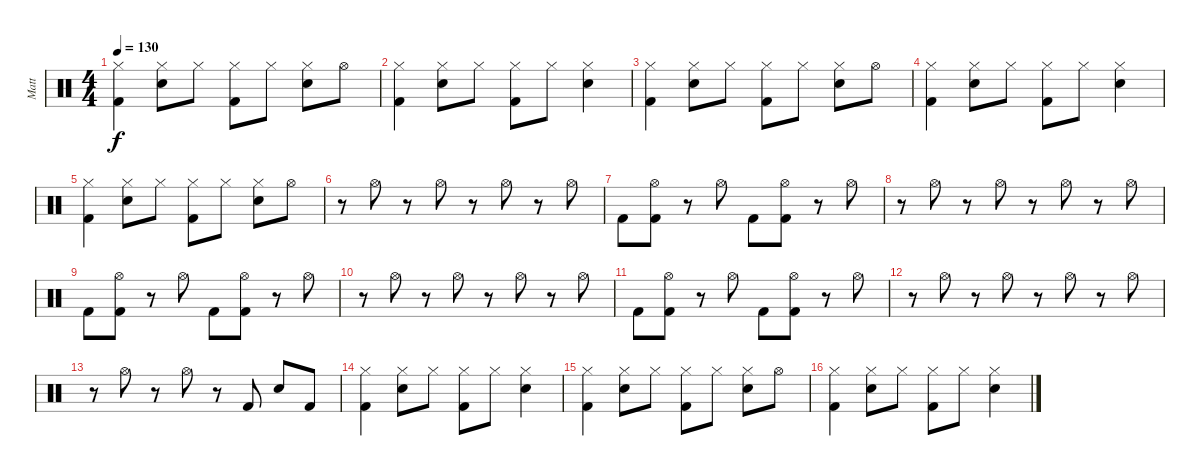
\track ("Matt" "Matt") {instrument percussion}
\staff {score}
\articulation defaults
\ts (4 4)
\tempo 130
\clef neutral
\ks c
("Hi-Hat (closed)" "Kick (hit) 2").4{dy f} ("Hi-Hat (closed)" "Snare (hit) 2").8 "Hi-Hat (closed)".8 ("Hi-Hat (closed)" "Kick (hit) 2").8 "Hi-Hat (closed)".8 ("Hi-Hat (closed)" "Snare (hit) 2").8 "Hi-Hat (open)".8 |
("Hi-Hat (closed)" "Kick (hit) 2").4 ("Hi-Hat (closed)" "Snare (hit) 2").8 "Hi-Hat (closed)".8 ("Hi-Hat (closed)" "Kick (hit) 2").8 "Hi-Hat (closed)".8 ("Hi-Hat (closed)" "Snare (hit) 2").4 |
("Hi-Hat (closed)" "Kick (hit) 2").4 ("Hi-Hat (closed)" "Snare (hit) 2").8 "Hi-Hat (closed)".8 ("Hi-Hat (closed)" "Kick (hit) 2").8 "Hi-Hat (closed)".8 ("Hi-Hat (closed)" "Snare (hit) 2").8 "Hi-Hat (open)".8 |
("Hi-Hat (closed)" "Kick (hit) 2").4 ("Hi-Hat (closed)" "Snare (hit) 2").8 "Hi-Hat (closed)".8 ("Hi-Hat (closed)" "Kick (hit) 2").8 "Hi-Hat (closed)".8 ("Hi-Hat (closed)" "Snare (hit) 2").4 |
("Hi-Hat (closed)" "Kick (hit) 2").4 ("Hi-Hat (closed)" "Snare (hit) 2").8 "Hi-Hat (closed)".8 ("Hi-Hat (closed)" "Kick (hit) 2").8 "Hi-Hat (closed)".8 ("Hi-Hat (closed)" "Snare (hit) 2").8 "Hi-Hat (open)".8 |
r.8 "Hi-Hat (open)".8 r.8 "Hi-Hat (open)".8 r.8 "Hi-Hat (open)".8 r.8 "Hi-Hat (open)".8 |
"Kick (hit) 2".8 ("Hi-Hat (open)" "Kick (hit) 2").8 r.8 "Hi-Hat (open)".8 "Kick (hit) 2".8 ("Hi-Hat (open)" "Kick (hit) 2").8 r.8 "Hi-Hat (open)".8 |
r.8 "Hi-Hat (open)".8 r.8 "Hi-Hat (open)".8 r.8 "Hi-Hat (open)".8 r.8 "Hi-Hat (open)".8 |
"Kick (hit) 2".8 ("Hi-Hat (open)" "Kick (hit) 2").8 r.8 "Hi-Hat (open)".8 "Kick (hit) 2".8 ("Hi-Hat (open)" "Kick (hit) 2").8 r.8 "Hi-Hat (open)".8 |
r.8 "Hi-Hat (open)".8 r.8 "Hi-Hat (open)".8 r.8 "Hi-Hat (open)".8 r.8 "Hi-Hat (open)".8 |
"Kick (hit) 2".8 ("Hi-Hat (open)" "Kick (hit) 2").8 r.8 "Hi-Hat (open)".8 "Kick (hit) 2".8 ("Hi-Hat (open)" "Kick (hit) 2").8 r.8 "Hi-Hat (open)".8 |
r.8 "Hi-Hat (open)".8 r.8 "Hi-Hat (open)".8 r.8 "Hi-Hat (open)".8 r.8 "Hi-Hat (open)".8 |
r.8 "Hi-Hat (open)".8 r.8 "Hi-Hat (open)".8 r.8 "Kick (hit) 2".8 "Snare (hit) 2".8 "Kick (hit) 2".8 |
("Hi-Hat (closed)" "Kick (hit) 2").4 ("Hi-Hat (closed)" "Snare (hit) 2").8 "Hi-Hat (closed)".8 ("Hi-Hat (closed)" "Kick (hit) 2").8 "Hi-Hat (closed)".8 ("Hi-Hat (closed)" "Snare (hit) 2").4 |
("Hi-Hat (closed)" "Kick (hit) 2").4 ("Hi-Hat (closed)" "Snare (hit) 2").8 "Hi-Hat (closed)".8 ("Hi-Hat (closed)" "Kick (hit) 2").8 "Hi-Hat (closed)".8 ("Hi-Hat (closed)" "Snare (hit) 2").8 "Hi-Hat (open)".8 |
("Hi-Hat (closed)" "Kick (hit) 2").4 ("Hi-Hat (closed)" "Snare (hit) 2").8 "Hi-Hat (closed)".8 ("Hi-Hat (closed)" "Kick (hit) 2").8 "Hi-Hat (closed)".8 ("Hi-Hat (closed)" "Snare (hit) 2").4
